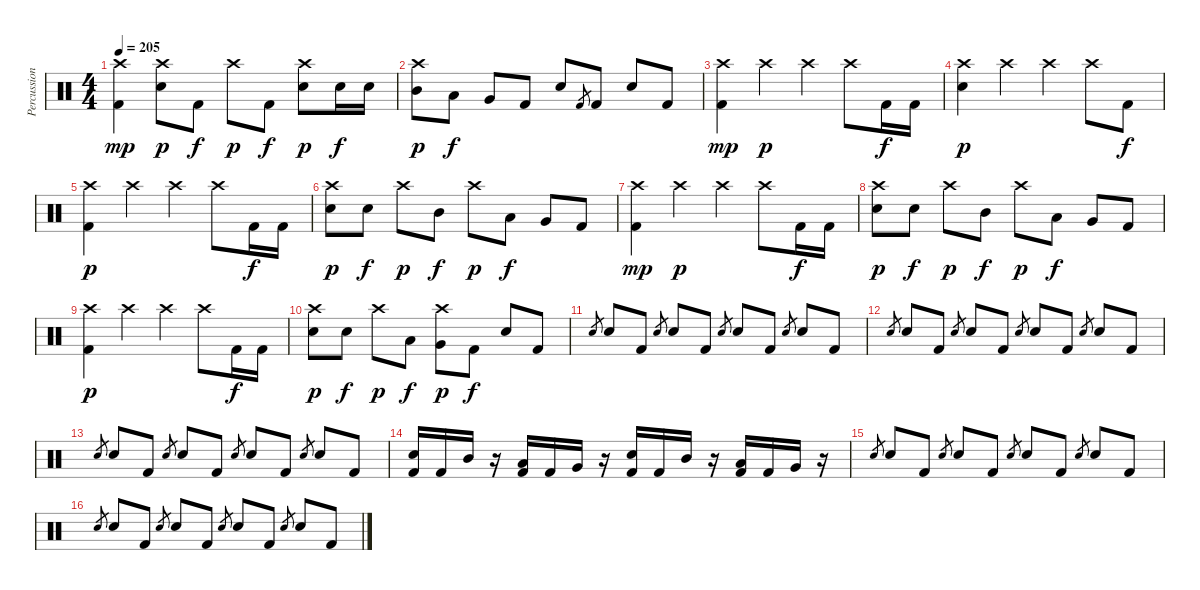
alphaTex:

\track ("Percussion" "Percussion") {instrument percussion}
\staff {score}
\articulation defaults
\ts (4 4)
\tempo 205
\clef neutral
\ks c
("Crash high (hit)" "Kick (hit) 2").4{dy mp} ("Crash high (hit)" "Electric Snare (hit)").8{dy p} "Kick (hit) 2".8{dy f} "Crash high (hit)".8{dy p} "Kick (hit) 2".8{dy f} ("Crash high (hit)" "Electric Snare (hit)").8{dy p} "Electric Snare (hit)".16{dy f} "Electric Snare (hit)".16 |
("Crash high (hit)" "Mid Tom (hit)").8{dy p} "Low Tom (hit)".8{dy f} "Very Low Tom (hit)".8 "Kick (hit) 2".8 "Electric Snare (hit)".8 "Kick (hit) 2".8{gr} "Kick (hit) 2".8 "Electric Snare (hit)".8 "Kick (hit) 2".8 |
("Crash high (hit)" "Kick (hit) 2").4{dy mp} "Crash high (hit)".4{dy p} "Crash high (hit)".4 "Crash high (hit)".8 "Kick (hit) 2".16{dy f} "Kick (hit) 2".16 |
("Crash high (hit)" "Electric Snare (hit)").4{dy p} "Crash high (hit)".4 "Crash high (hit)".4 "Crash high (hit)".8 "Kick (hit) 2".8{dy f} |
("Crash high (hit)" "Kick (hit) 2").4{dy p} "Crash high (hit)".4 "Crash high (hit)".4 "Crash high (hit)".8 "Kick (hit) 2".16{dy f} "Kick (hit) 2".16 |
("Crash high (hit)" "Electric Snare (hit)").8{dy p} "Electric Snare (hit)".8{dy f} "Crash high (hit)".8{dy p} "Mid Tom (hit)".8{dy f} "Crash high (hit)".8{dy p} "Low Tom (hit)".8{dy f} "Very Low Tom (hit)".8 "Kick (hit) 2".8 |
("Crash high (hit)" "Kick (hit) 2").4{dy mp} "Crash high (hit)".4{dy p} "Crash high (hit)".4 "Crash high (hit)".8 "Kick (hit) 2".16{dy f} "Kick (hit) 2".16 |
("Crash high (hit)" "Electric Snare (hit)").8{dy p} "Electric Snare (hit)".8{dy f} "Crash high (hit)".8{dy p} "Mid Tom (hit)".8{dy f} "Crash high (hit)".8{dy p} "Low Tom (hit)".8{dy f} "Very Low Tom (hit)".8 "Kick (hit) 2".8 |
("Crash high (hit)" "Kick (hit) 2").4{dy p} "Crash high (hit)".4 "Crash high (hit)".4 "Crash high (hit)".8 "Kick (hit) 2".16{dy f} "Kick (hit) 2".16 |
("Crash high (hit)" "Electric Snare (hit)").8{dy p} "Electric Snare (hit)".8{dy f} "Crash high (hit)".8{dy p} "Low Tom (hit)".8{dy f} ("Crash high (hit)" "Very Low Tom (hit)").8{dy p} "Kick (hit) 2".8{dy f} "Electric Snare (hit)".8 "Kick (hit) 2".8 |
"Electric Snare (hit)".8{gr} "Electric Snare (hit)".8 "Kick (hit) 2".8 "Electric Snare (hit)".8{gr} "Electric Snare (hit)".8 "Kick (hit) 2".8 "Electric Snare (hit)".8{gr} "Electric Snare (hit)".8 "Kick (hit) 2".8 "Electric Snare (hit)".8{gr} "Electric Snare (hit)".8 "Kick (hit) 2".8 |
"Electric Snare (hit)".8{gr} "Electric Snare (hit)".8 "Kick (hit) 2".8 "Electric Snare (hit)".8{gr} "Electric Snare (hit)".8 "Kick (hit) 2".8 "Electric Snare (hit)".8{gr} "Electric Snare (hit)".8 "Kick (hit) 2".8 "Electric Snare (hit)".8{gr} "Electric Snare (hit)".8 "Kick (hit) 2".8 |
"Electric Snare (hit)".8{gr} "Electric Snare (hit)".8 "Kick (hit) 2".8 "Electric Snare (hit)".8{gr} "Electric Snare (hit)".8 "Kick (hit) 2".8 "Electric Snare (hit)".8{gr} "Electric Snare (hit)".8 "Kick (hit) 2".8 "Electric Snare (hit)".8{gr} "Electric Snare (hit)".8 "Kick (hit) 2".8 |
("Electric Snare (hit)" "Kick (hit) 2").16 "Kick (hit) 2".16 "Mid Tom (hit)".16 r.16 ("Low Tom (hit)" "Kick (hit) 2").16 "Kick (hit) 2".16 "Very Low Tom (hit)".16 r.16 ("Electric Snare (hit)" "Kick (hit) 2").16 "Kick (hit) 2".16 "Mid Tom (hit)".16 r.16 ("Low Tom (hit)" "Kick (hit) 2").16 "Kick (hit) 2".16 "Very Low Tom (hit)".16 r.16 |
"Electric Snare (hit)".8{gr} "Electric Snare (hit)".8 "Kick (hit) 2".8 "Electric Snare (hit)".8{gr} "Electric Snare (hit)".8 "Kick (hit) 2".8 "Electric Snare (hit)".8{gr} "Electric Snare (hit)".8 "Kick (hit) 2".8 "Electric Snare (hit)".8{gr} "Electric Snare (hit)".8 "Kick (hit) 2".8 |
"Electric Snare (hit)".8{gr} "Electric Snare (hit)".8 "Kick (hit) 2".8 "Electric Snare (hit)".8{gr} "Electric Snare (hit)".8 "Kick (hit) 2".8 "Electric Snare (hit)".8{gr} "Electric Snare (hit)".8 "Kick (hit) 2".8 "Electric Snare (hit)".8{gr} "Electric Snare (hit)".8 "Kick (hit) 2".8
